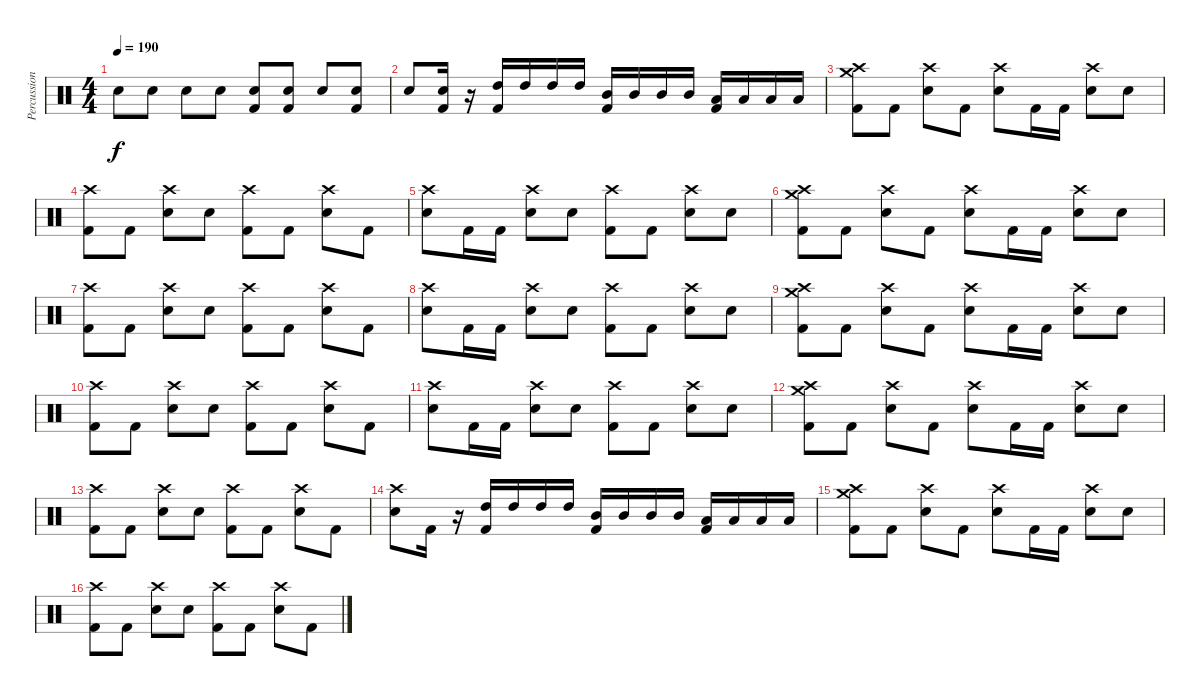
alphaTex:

\track ("Percussion" "Percussion") {instrument percussion}
\staff {score}
\articulation defaults
\ts (4 4)
\tempo 190
\clef neutral
\ks c "Snare (hit)".8{dy f} "Snare (hit)".8 "Snare (hit)".8 "Snare (hit)".8
("Snare (hit) 2" "Kick (hit) 2").8 ("Snare (hit) 2" "Kick (hit) 2").8 "Snare (hit)".8 ("Snare (hit) 2" "Kick (hit) 2").8 |
"Snare (hit)".8 ("Snare (hit) 2" "Kick (hit) 2").16 r.16 ("High Tom (hit)" "Kick (hit) 2").16 "High Tom (hit)".16 "High Tom (hit)".16 "High Tom (hit)".16 ("Mid Tom (hit)" "Kick (hit) 2").16 "Mid Tom (hit)".16 "Mid Tom (hit)".16 "Mid Tom (hit)".16 ("Low Tom (hit)" "Kick (hit) 2").16 "Low Tom (hit)".16 "Low Tom (hit)".16 "Low Tom (hit)".16 |
("Crash high (hit)" "Crash medium (hit)" "Kick (hit) 2").8 "Kick (hit) 2".8 ("Crash high (hit)" "Snare (hit)").8 "Kick (hit) 2".8 ("Crash high (hit)" "Snare (hit)").8 "Kick (hit) 2".16 "Kick (hit) 2".16 ("Crash high (hit)" "Snare (hit) 2").8 "Snare (hit)".8 |
("Crash high (hit)" "Kick (hit) 2").8 "Kick (hit) 2".8 ("Crash high (hit)" "Snare (hit) 2").8 "Snare (hit)".8 ("Crash high (hit)" "Kick (hit) 2").8 "Kick (hit) 2".8 ("Crash high (hit)" "Snare (hit)").8 "Kick (hit) 2".8 |
("Crash high (hit)" "Snare (hit)").8 "Kick (hit) 2".16 "Kick (hit) 2".16 ("Crash high (hit)" "Snare (hit) 2").8 "Snare (hit)".8 ("Crash high (hit)" "Kick (hit) 2").8 "Kick (hit) 2".8 ("Crash high (hit)" "Snare (hit) 2").8 "Snare (hit)".8 |
("Crash high (hit)" "Crash medium (hit)" "Kick (hit) 2").8 "Kick (hit) 2".8 ("Crash high (hit)" "Snare (hit)").8 "Kick (hit) 2".8 ("Crash high (hit)" "Snare (hit)").8 "Kick (hit) 2".16 "Kick (hit) 2".16 ("Crash high (hit)" "Snare (hit) 2").8 "Snare (hit)".8 |
("Crash high (hit)" "Kick (hit) 2").8 "Kick (hit) 2".8 ("Crash high (hit)" "Snare (hit) 2").8 "Snare (hit)".8 ("Crash high (hit)" "Kick (hit) 2").8 "Kick (hit) 2".8 ("Crash high (hit)" "Snare (hit)").8 "Kick (hit) 2".8 |
("Crash high (hit)" "Snare (hit)").8 "Kick (hit) 2".16 "Kick (hit) 2".16 ("Crash high (hit)" "Snare (hit) 2").8 "Snare (hit)".8 ("Crash high (hit)" "Kick (hit) 2").8 "Kick (hit) 2".8 ("Crash high (hit)" "Snare (hit) 2").8 "Snare (hit)".8 |
("Crash high (hit)" "Crash medium (hit)" "Kick (hit) 2").8 "Kick (hit) 2".8 ("Crash high (hit)" "Snare (hit)").8 "Kick (hit) 2".8 ("Crash high (hit)" "Snare (hit)").8 "Kick (hit) 2".16 "Kick (hit) 2".16 ("Crash high (hit)" "Snare (hit) 2").8 "Snare (hit)".8 |
("Crash high (hit)" "Kick (hit) 2").8 "Kick (hit) 2".8 ("Crash high (hit)" "Snare (hit) 2").8 "Snare (hit)".8 ("Crash high (hit)" "Kick (hit) 2").8 "Kick (hit) 2".8 ("Crash high (hit)" "Snare (hit)").8 "Kick (hit) 2".8 |
("Crash high (hit)" "Snare (hit)").8 "Kick (hit) 2".16 "Kick (hit) 2".16 ("Crash high (hit)" "Snare (hit) 2").8 "Snare (hit)".8 ("Crash high (hit)" "Kick (hit) 2").8 "Kick (hit) 2".8 ("Crash high (hit)" "Snare (hit) 2").8 "Snare (hit)".8 |
("Crash high (hit)" "Crash medium (hit)" "Kick (hit) 2").8 "Kick (hit) 2".8 ("Crash high (hit)" "Snare (hit)").8 "Kick (hit) 2".8 ("Crash high (hit)" "Snare (hit)").8 "Kick (hit) 2".16 "Kick (hit) 2".16 ("Crash high (hit)" "Snare (hit) 2").8 "Snare (hit)".8 |
("Crash high (hit)" "Kick (hit) 2").8 "Kick (hit) 2".8 ("Crash high (hit)" "Snare (hit) 2").8 "Snare (hit)".8 ("Crash high (hit)" "Kick (hit) 2").8 "Kick (hit) 2".8 ("Crash high (hit)" "Snare (hit)").8 "Kick (hit) 2".8 |
("Crash high (hit)" "Snare (hit)").8 "Kick (hit) 2".16 r.16 ("High Tom (hit)" "Kick (hit) 2").16 "High Tom (hit)".16 "High Tom (hit)".16 "High Tom (hit)".16 ("Mid Tom (hit)" "Kick (hit) 2").16 "Mid Tom (hit)".16 "Mid Tom (hit)".16 "Mid Tom (hit)".16 ("Low Tom (hit)" "Kick (hit) 2").16 "Low Tom (hit)".16 "Low Tom (hit)".16 "Low Tom (hit)".16 |
("Crash high (hit)" "Crash medium (hit)" "Kick (hit) 2").8 "Kick (hit) 2".8 ("Crash high (hit)" "Snare (hit)").8 "Kick (hit) 2".8 ("Crash high (hit)" "Snare (hit)").8 "Kick (hit) 2".16 "Kick (hit) 2".16 ("Crash high (hit)" "Snare (hit) 2").8 "Snare (hit)".8 |
("Crash high (hit)" "Kick (hit) 2").8 "Kick (hit) 2".8 ("Crash high (hit)" "Snare (hit) 2").8 "Snare (hit)".8 ("Crash high (hit)" "Kick (hit) 2").8 "Kick (hit) 2".8 ("Crash high (hit)" "Snare (hit)").8 "Kick (hit) 2".8
